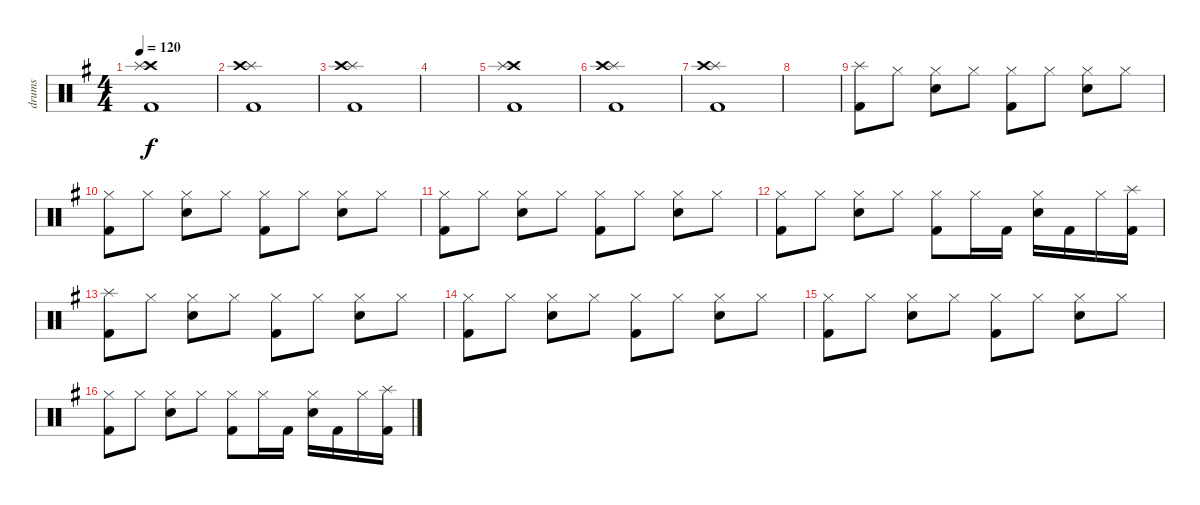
\track ("drums" "drums") {instrument percussion}
\staff {score}
\articulation defaults
\ts (4 4)
\tempo 120
\clef neutral
\ks eminor
("Kick (hit) 2" "Crash high (hit)" "Splash (hit)").1{dy f} |
("Kick (hit) 2" "Splash (hit)" "Crash high (hit)").1 |
("Kick (hit) 2" "Splash (hit)" "Crash high (hit)").1 |
|
("Kick (hit) 2" "Crash high (hit)" "Splash (hit)").1 |
("Kick (hit) 2" "Splash (hit)" "Crash high (hit)").1 |
("Kick (hit) 2" "Splash (hit)" "Crash high (hit)").1 |
|
("Kick (hit) 2" "Splash (hit)").8 "Hi-Hat (closed)".8 ("Electric Snare (hit)" "Hi-Hat (closed)").8 "Hi-Hat (closed)".8 ("Kick (hit) 2" "Hi-Hat (closed)").8 "Hi-Hat (closed)".8 ("Electric Snare (hit)" "Hi-Hat (closed)").8 "Hi-Hat (closed)".8 |
("Kick (hit) 2" "Hi-Hat (closed)").8 "Hi-Hat (closed)".8 ("Electric Snare (hit)" "Hi-Hat (closed)").8 "Hi-Hat (closed)".8 ("Kick (hit) 2" "Hi-Hat (closed)").8 "Hi-Hat (closed)".8 ("Electric Snare (hit)" "Hi-Hat (closed)").8 "Hi-Hat (closed)".8 |
("Kick (hit) 2" "Hi-Hat (closed)").8 "Hi-Hat (closed)".8 ("Electric Snare (hit)" "Hi-Hat (closed)").8 "Hi-Hat (closed)".8 ("Kick (hit) 2" "Hi-Hat (closed)").8 "Hi-Hat (closed)".8 ("Electric Snare (hit)" "Hi-Hat (closed)").8 "Hi-Hat (closed)".8 |
("Kick (hit) 2" "Hi-Hat (closed)").8 "Hi-Hat (closed)".8 ("Electric Snare (hit)" "Hi-Hat (closed)").8 "Hi-Hat (closed)".8 ("Kick (hit) 2" "Hi-Hat (closed)").8 "Hi-Hat (closed)".16 "Kick (hit) 2".16 ("Electric Snare (hit)" "Hi-Hat (closed)").16 "Kick (hit) 2".16 "Hi-Hat (closed)".16 ("Kick (hit) 2" "Splash (hit)").16 |
("Kick (hit) 2" "Splash (hit)").8 "Hi-Hat (closed)".8 ("Electric Snare (hit)" "Hi-Hat (closed)").8 "Hi-Hat (closed)".8 ("Kick (hit) 2" "Hi-Hat (closed)").8 "Hi-Hat (closed)".8 ("Electric Snare (hit)" "Hi-Hat (closed)").8 "Hi-Hat (closed)".8 |
("Kick (hit) 2" "Hi-Hat (closed)").8 "Hi-Hat (closed)".8 ("Electric Snare (hit)" "Hi-Hat (closed)").8 "Hi-Hat (closed)".8 ("Kick (hit) 2" "Hi-Hat (closed)").8 "Hi-Hat (closed)".8 ("Electric Snare (hit)" "Hi-Hat (closed)").8 "Hi-Hat (closed)".8 |
("Kick (hit) 2" "Hi-Hat (closed)").8 "Hi-Hat (closed)".8 ("Electric Snare (hit)" "Hi-Hat (closed)").8 "Hi-Hat (closed)".8 ("Kick (hit) 2" "Hi-Hat (closed)").8 "Hi-Hat (closed)".8 ("Electric Snare (hit)" "Hi-Hat (closed)").8 "Hi-Hat (closed)".8 |
("Kick (hit) 2" "Hi-Hat (closed)").8 "Hi-Hat (closed)".8 ("Electric Snare (hit)" "Hi-Hat (closed)").8 "Hi-Hat (closed)".8 ("Kick (hit) 2" "Hi-Hat (closed)").8 "Hi-Hat (closed)".16 "Kick (hit) 2".16 ("Electric Snare (hit)" "Hi-Hat (closed)").16 "Kick (hit) 2".16 "Hi-Hat (closed)".16 ("Kick (hit) 2" "Splash (hit)").16
